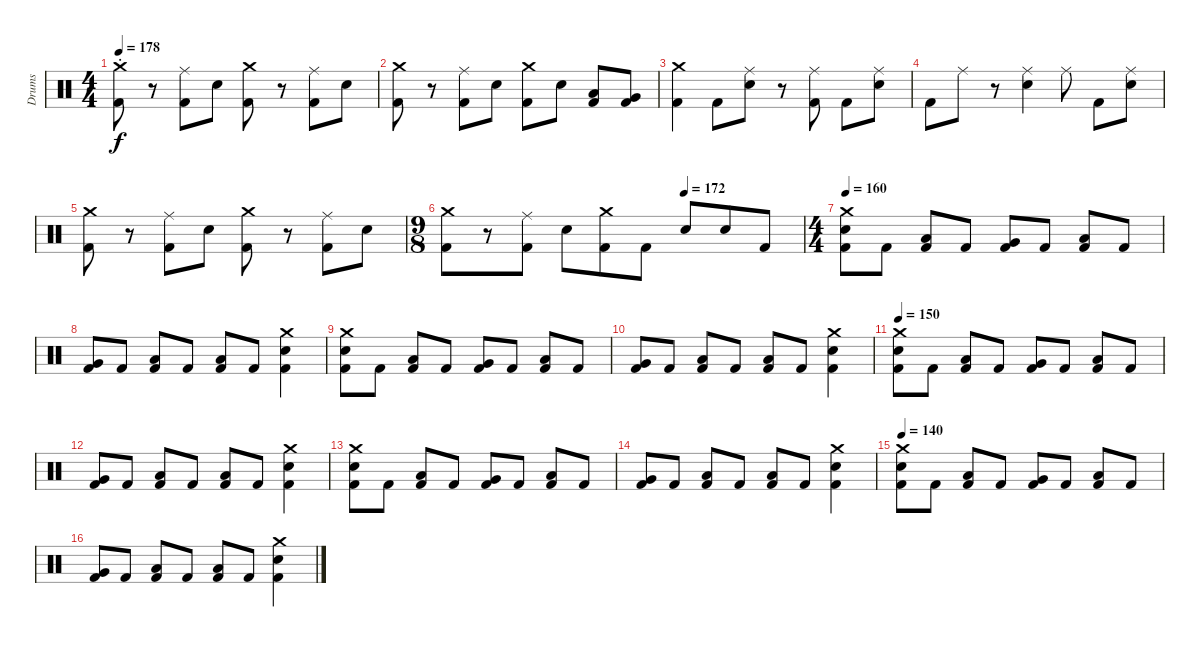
\track ("Drums" "Drums") {instrument percussion}
\staff {score}
\articulation defaults
\ts (4 4)
\tempo 178
\clef neutral
\ks c
("Crash medium (hit)" "Kick (hit) 2"{st}).8{dy f} r.8 ("Ride (middle)" "Kick (hit) 2").8 "Electric Snare (hit)".8 ("Crash medium (hit)" "Kick (hit) 2").8 r.8 ("Ride (middle)" "Kick (hit) 2").8 "Electric Snare (hit)".8 |
("Crash medium (hit)" "Kick (hit) 2").8 r.8 ("Ride (middle)" "Kick (hit) 2").8 "Electric Snare (hit)".8 ("Crash medium (hit)" "Kick (hit) 2").8 "Electric Snare (hit)".8 ("Low Tom (hit)" "Kick (hit) 2").8 ("Very Low Tom (hit)" "Kick (hit) 2").8 |
("Crash medium (hit)" "Kick (hit) 2").4 "Kick (hit) 2".8 ("Ride (middle)" "Electric Snare (hit)").8 r.8 ("Ride (middle)" "Kick (hit) 2").8 "Kick (hit) 2".8 ("Ride (middle)" "Electric Snare (hit)").8 |
"Kick (hit) 2".8 "Ride (middle)".8 r.8 ("Ride (middle)" "Electric Snare (hit)").4 "Ride (middle)".8 "Kick (hit) 2".8 ("Ride (middle)" "Electric Snare (hit)").8 |
("Crash medium (hit)" "Kick (hit) 2").8 r.8 ("Ride (middle)" "Kick (hit) 2").8 "Electric Snare (hit)".8 ("Crash medium (hit)" "Kick (hit) 2").8 r.8 ("Ride (middle)" "Kick (hit) 2").8 "Electric Snare (hit)".8 |
\ts (9 8)
\tempo (172 0.6666666666666666)
("Crash medium (hit)" "Kick (hit) 2").8 r.8 ("Ride (middle)" "Kick (hit) 2").8 "Electric Snare (hit)".8 ("Crash medium (hit)" "Kick (hit) 2").8 "Kick (hit) 2".8 "Electric Snare (hit)".8 "Electric Snare (hit)".8 "Kick (hit) 2".8 |
\ts (4 4)
\section ("" "")
\tempo 160
("Crash medium (hit)" "Electric Snare (hit)" "Kick (hit) 2").8 "Kick (hit) 2".8 ("Low Floor Tom (hit)" "Kick (hit) 2").8 "Kick (hit) 2".8 ("Very Low Tom (hit)" "Kick (hit) 2").8 "Kick (hit) 2".8 ("Low Floor Tom (hit)" "Kick (hit) 2").8 "Kick (hit) 2".8 |
("Very Low Tom (hit)" "Kick (hit) 2").8 "Kick (hit) 2".8 ("Low Floor Tom (hit)" "Kick (hit) 2").8 "Kick (hit) 2".8 ("Low Floor Tom (hit)" "Kick (hit) 2").8 "Kick (hit) 2".8 ("Crash medium (hit)" "Electric Snare (hit)" "Kick (hit) 2").4 |
("Crash medium (hit)" "Electric Snare (hit)" "Kick (hit) 2").8 "Kick (hit) 2".8 ("Low Floor Tom (hit)" "Kick (hit) 2").8 "Kick (hit) 2".8 ("Very Low Tom (hit)" "Kick (hit) 2").8 "Kick (hit) 2".8 ("Low Floor Tom (hit)" "Kick (hit) 2").8 "Kick (hit) 2".8 |
("Very Low Tom (hit)" "Kick (hit) 2").8 "Kick (hit) 2".8 ("Low Floor Tom (hit)" "Kick (hit) 2").8 "Kick (hit) 2".8 ("Low Floor Tom (hit)" "Kick (hit) 2").8 "Kick (hit) 2".8 ("Crash medium (hit)" "Electric Snare (hit)" "Kick (hit) 2").4 |
\tempo 150
("Crash medium (hit)" "Electric Snare (hit)" "Kick (hit) 2").8 "Kick (hit) 2".8 ("Low Floor Tom (hit)" "Kick (hit) 2").8 "Kick (hit) 2".8 ("Very Low Tom (hit)" "Kick (hit) 2").8 "Kick (hit) 2".8 ("Low Floor Tom (hit)" "Kick (hit) 2").8 "Kick (hit) 2".8 |
("Very Low Tom (hit)" "Kick (hit) 2").8 "Kick (hit) 2".8 ("Low Floor Tom (hit)" "Kick (hit) 2").8 "Kick (hit) 2".8 ("Low Floor Tom (hit)" "Kick (hit) 2").8 "Kick (hit) 2".8 ("Crash medium (hit)" "Electric Snare (hit)" "Kick (hit) 2").4 |
("Crash medium (hit)" "Electric Snare (hit)" "Kick (hit) 2").8 "Kick (hit) 2".8 ("Low Floor Tom (hit)" "Kick (hit) 2").8 "Kick (hit) 2".8 ("Very Low Tom (hit)" "Kick (hit) 2").8 "Kick (hit) 2".8 ("Low Floor Tom (hit)" "Kick (hit) 2").8 "Kick (hit) 2".8 |
("Very Low Tom (hit)" "Kick (hit) 2").8 "Kick (hit) 2".8 ("Low Floor Tom (hit)" "Kick (hit) 2").8 "Kick (hit) 2".8 ("Low Floor Tom (hit)" "Kick (hit) 2").8 "Kick (hit) 2".8 ("Crash medium (hit)" "Electric Snare (hit)" "Kick (hit) 2").4 |
\tempo 140
("Crash medium (hit)" "Electric Snare (hit)" "Kick (hit) 2").8 "Kick (hit) 2".8 ("Low Floor Tom (hit)" "Kick (hit) 2").8 "Kick (hit) 2".8 ("Very Low Tom (hit)" "Kick (hit) 2").8 "Kick (hit) 2".8 ("Low Floor Tom (hit)" "Kick (hit) 2").8 "Kick (hit) 2".8 |
("Very Low Tom (hit)" "Kick (hit) 2").8 "Kick (hit) 2".8 ("Low Floor Tom (hit)" "Kick (hit) 2").8 "Kick (hit) 2".8 ("Low Floor Tom (hit)" "Kick (hit) 2").8 "Kick (hit) 2".8 ("Crash medium (hit)" "Electric Snare (hit)" "Kick (hit) 2").4
